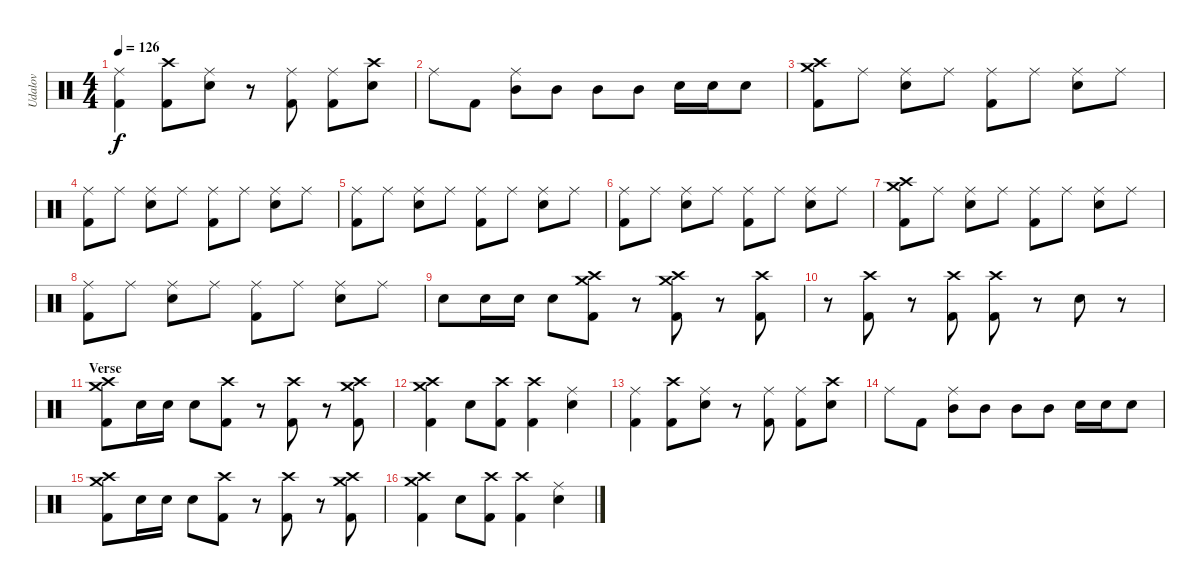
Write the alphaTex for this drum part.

\track ("Udalov" "Udalov") {instrument percussion}
\staff {score}
\articulation defaults
\ts (4 4)
\tempo 126
\clef neutral
\ks c
("Kick (hit) 2" "Ride (middle)").4{dy f} ("Kick (hit) 2" "Crash high (hit)").8 ("Snare (hit) 2" "Ride (middle)").8 r.8 ("Kick (hit) 2" "Ride (middle)").8 ("Kick (hit) 2" "Ride (middle)").8 ("Snare (hit) 2" "Crash high (hit)").8 |
"Ride (middle)".8 "Kick (hit) 2".8 ("Mid Tom (hit)" "Ride (middle)").8 "Mid Tom (hit)".8 "Mid Tom (hit)".8 "Mid Tom (hit)".8 "Electric Snare (hit)".16 "Electric Snare (hit)".16 "Electric Snare (hit)".8 |
("Kick (hit) 2" "Crash high (hit)" "Crash medium (hit)").8 "Ride (middle)".8 ("Snare (hit) 2" "Ride (middle)").8 "Ride (middle)".8 ("Kick (hit) 2" "Ride (middle)").8 "Ride (middle)".8 ("Snare (hit) 2" "Ride (middle)").8 "Ride (middle)".8 |
("Kick (hit) 2" "Ride (middle)").8 "Ride (middle)".8 ("Snare (hit) 2" "Ride (middle)").8 "Ride (middle)".8 ("Kick (hit) 2" "Ride (middle)").8 "Ride (middle)".8 ("Snare (hit) 2" "Ride (middle)").8 "Ride (middle)".8 |
("Kick (hit) 2" "Ride (middle)").8 "Ride (middle)".8 ("Snare (hit) 2" "Ride (middle)").8 "Ride (middle)".8 ("Kick (hit) 2" "Ride (middle)").8 "Ride (middle)".8 ("Snare (hit) 2" "Ride (middle)").8 "Ride (middle)".8 |
("Kick (hit) 2" "Ride (middle)").8 "Ride (middle)".8 ("Snare (hit) 2" "Ride (middle)").8 "Ride (middle)".8 ("Kick (hit) 2" "Ride (middle)").8 "Ride (middle)".8 ("Snare (hit) 2" "Ride (middle)").8 "Ride (middle)".8 |
("Kick (hit) 2" "Crash high (hit)" "Crash medium (hit)").8 "Ride (middle)".8 ("Snare (hit) 2" "Ride (middle)").8 "Ride (middle)".8 ("Kick (hit) 2" "Ride (middle)").8 "Ride (middle)".8 ("Snare (hit) 2" "Ride (middle)").8 "Ride (middle)".8 |
("Kick (hit) 2" "Ride (middle)").8 "Ride (middle)".8 ("Snare (hit) 2" "Ride (middle)").8 "Ride (middle)".8 ("Kick (hit) 2" "Ride (middle)").8 "Ride (middle)".8 ("Snare (hit) 2" "Ride (middle)").8 "Ride (middle)".8 |
"Snare (hit) 2".8 "Snare (hit) 2".16 "Snare (hit) 2".16 "Snare (hit) 2".8 ("Kick (hit) 2" "Crash high (hit)" "Crash medium (hit)").8 r.8 ("Kick (hit) 2" "Crash high (hit)" "Crash medium (hit)").8 r.8 ("Kick (hit) 2" "Crash high (hit)").8 |
r.8 ("Kick (hit) 2" "Crash high (hit)").8 r.8 ("Kick (hit) 2" "Crash high (hit)").8 ("Kick (hit) 2" "Crash high (hit)").8 r.8 "Snare (hit) 2".8 r.8 |
\section ("" "Verse")
("Kick (hit) 2" "Crash high (hit)" "Crash medium (hit)").8 "Snare (hit) 2".16 "Electric Snare (hit)".16 "Snare (hit) 2".8 ("Kick (hit) 2" "Crash high (hit)").8 r.8 ("Kick (hit) 2" "Crash high (hit)").8 r.8 ("Kick (hit) 2" "Crash medium (hit)" "Crash high (hit)").8 |
("Kick (hit) 2" "Crash high (hit)" "Crash medium (hit)").4 "Snare (hit) 2".8 ("Kick (hit) 2" "Crash high (hit)").8 ("Kick (hit) 2" "Crash high (hit)").4 ("Snare (hit) 2" "Ride (middle)").4 |
("Kick (hit) 2" "Ride (middle)").4 ("Kick (hit) 2" "Crash high (hit)").8 ("Snare (hit) 2" "Ride (middle)").8 r.8 ("Kick (hit) 2" "Ride (middle)").8 ("Kick (hit) 2" "Ride (middle)").8 ("Snare (hit) 2" "Crash high (hit)").8 |
"Ride (middle)".8 "Kick (hit) 2".8 ("Mid Tom (hit)" "Ride (middle)").8 "Mid Tom (hit)".8 "Mid Tom (hit)".8 "Mid Tom (hit)".8 "Electric Snare (hit)".16 "Electric Snare (hit)".16 "Electric Snare (hit)".8 |
("Kick (hit) 2" "Crash high (hit)" "Crash medium (hit)").8 "Snare (hit) 2".16 "Electric Snare (hit)".16 "Snare (hit) 2".8 ("Kick (hit) 2" "Crash high (hit)").8 r.8 ("Kick (hit) 2" "Crash high (hit)").8 r.8 ("Kick (hit) 2" "Crash medium (hit)" "Crash high (hit)").8 |
("Kick (hit) 2" "Crash high (hit)" "Crash medium (hit)").4 "Snare (hit) 2".8 ("Kick (hit) 2" "Crash high (hit)").8 ("Kick (hit) 2" "Crash high (hit)").4 ("Snare (hit) 2" "Ride (middle)").4
